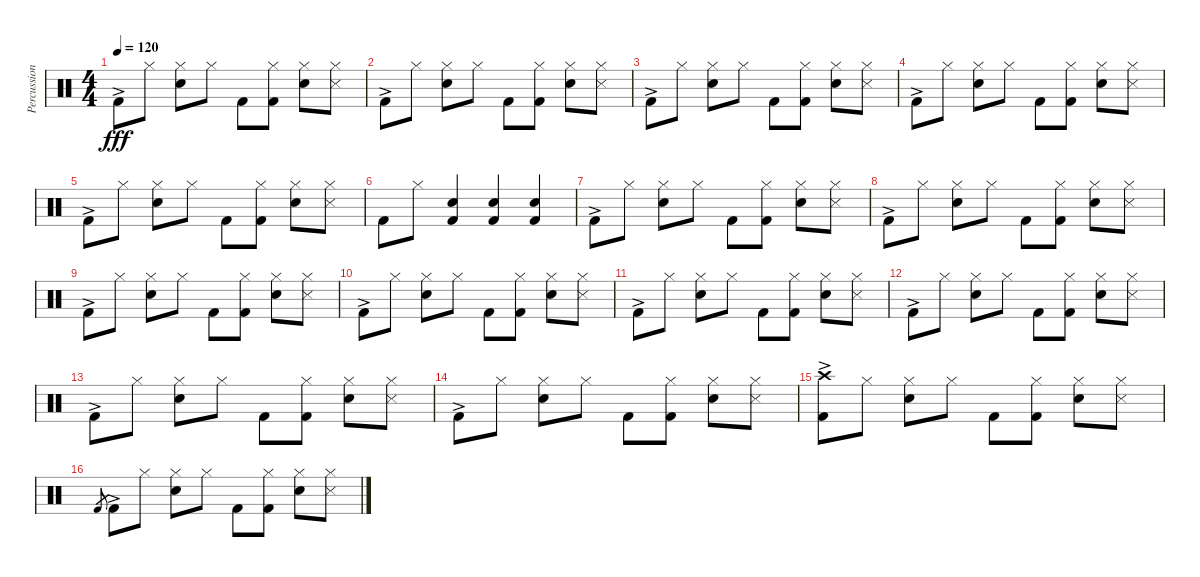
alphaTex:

\track ("Percussion" "Percussion") {instrument percussion}
\staff {score}
\articulation defaults
\ts (4 4)
\tempo 120
\clef neutral
\ks c "Kick (hit) 2"{ac}.8{dy fff} "Hi-Hat (closed)".8
("Hi-Hat (closed)" "Snare (hit) 2").8 "Hi-Hat (closed)".8 "Kick (hit) 2".8 ("Hi-Hat (closed)" "Kick (hit) 2").8 ("Hi-Hat (closed)" "Snare (hit) 2").8 ("Hi-Hat (closed)" "Snare (side stick) 3").8 |
"Kick (hit) 2"{ac}.8 "Hi-Hat (closed)".8 ("Hi-Hat (closed)" "Snare (hit) 2").8 "Hi-Hat (closed)".8 "Kick (hit) 2".8 ("Hi-Hat (closed)" "Kick (hit) 2").8 ("Hi-Hat (closed)" "Snare (hit) 2").8 ("Hi-Hat (closed)" "Snare (side stick) 3").8 |
"Kick (hit) 2"{ac}.8 "Hi-Hat (closed)".8 ("Hi-Hat (closed)" "Snare (hit) 2").8 "Hi-Hat (closed)".8 "Kick (hit) 2".8 ("Hi-Hat (closed)" "Kick (hit) 2").8 ("Hi-Hat (closed)" "Snare (hit) 2").8 ("Hi-Hat (closed)" "Snare (side stick) 3").8 |
"Kick (hit) 2"{ac}.8 "Hi-Hat (closed)".8 ("Hi-Hat (closed)" "Snare (hit) 2").8 "Hi-Hat (closed)".8 "Kick (hit) 2".8 ("Hi-Hat (closed)" "Kick (hit) 2").8 ("Hi-Hat (closed)" "Snare (hit) 2").8 ("Hi-Hat (closed)" "Snare (side stick) 3").8 |
"Kick (hit) 2"{ac}.8 "Hi-Hat (closed)".8 ("Hi-Hat (closed)" "Snare (hit) 2").8 "Hi-Hat (closed)".8 "Kick (hit) 2".8 ("Hi-Hat (closed)" "Kick (hit) 2").8 ("Hi-Hat (closed)" "Snare (hit) 2").8 ("Hi-Hat (closed)" "Snare (side stick) 3").8 |
"Kick (hit) 2".8 "Hi-Hat (closed)".8 ("Snare (hit) 2" "Kick (hit) 2").4 ("Snare (hit) 2" "Kick (hit) 2").4 ("Snare (hit) 2" "Kick (hit) 2").4 |
"Kick (hit) 2"{ac}.8 "Hi-Hat (closed)".8 ("Hi-Hat (closed)" "Snare (hit) 2").8 "Hi-Hat (closed)".8 "Kick (hit) 2".8 ("Hi-Hat (closed)" "Kick (hit) 2").8 ("Hi-Hat (closed)" "Snare (hit) 2").8 ("Hi-Hat (closed)" "Snare (side stick) 3").8 |
"Kick (hit) 2"{ac}.8 "Hi-Hat (closed)".8 ("Hi-Hat (closed)" "Snare (hit) 2").8 "Hi-Hat (closed)".8 "Kick (hit) 2".8 ("Hi-Hat (closed)" "Kick (hit) 2").8 ("Hi-Hat (closed)" "Snare (hit) 2").8 ("Hi-Hat (closed)" "Snare (side stick) 3").8 |
"Kick (hit) 2"{ac}.8 "Hi-Hat (closed)".8 ("Hi-Hat (closed)" "Snare (hit) 2").8 "Hi-Hat (closed)".8 "Kick (hit) 2".8 ("Hi-Hat (closed)" "Kick (hit) 2").8 ("Hi-Hat (closed)" "Snare (hit) 2").8 ("Hi-Hat (closed)" "Snare (side stick) 3").8 |
"Kick (hit) 2"{ac}.8 "Hi-Hat (closed)".8 ("Hi-Hat (closed)" "Snare (hit) 2").8 "Hi-Hat (closed)".8 "Kick (hit) 2".8 ("Hi-Hat (closed)" "Kick (hit) 2").8 ("Hi-Hat (closed)" "Snare (hit) 2").8 ("Hi-Hat (closed)" "Snare (side stick) 3").8 |
"Kick (hit) 2"{ac}.8 "Hi-Hat (closed)".8 ("Hi-Hat (closed)" "Snare (hit) 2").8 "Hi-Hat (closed)".8 "Kick (hit) 2".8 ("Hi-Hat (closed)" "Kick (hit) 2").8 ("Hi-Hat (closed)" "Snare (hit) 2").8 ("Hi-Hat (closed)" "Snare (side stick) 3").8 |
"Kick (hit) 2"{ac}.8 "Hi-Hat (closed)".8 ("Hi-Hat (closed)" "Snare (hit) 2").8 "Hi-Hat (closed)".8 "Kick (hit) 2".8 ("Hi-Hat (closed)" "Kick (hit) 2").8 ("Hi-Hat (closed)" "Snare (hit) 2").8 ("Hi-Hat (closed)" "Snare (side stick) 3").8 |
"Kick (hit) 2"{ac}.8 "Hi-Hat (closed)".8 ("Hi-Hat (closed)" "Snare (hit) 2").8 "Hi-Hat (closed)".8 "Kick (hit) 2".8 ("Hi-Hat (closed)" "Kick (hit) 2").8 ("Hi-Hat (closed)" "Snare (hit) 2").8 ("Hi-Hat (closed)" "Snare (side stick) 3").8 |
"Kick (hit) 2"{ac}.8 "Hi-Hat (closed)".8 ("Hi-Hat (closed)" "Snare (hit) 2").8 "Hi-Hat (closed)".8 "Kick (hit) 2".8 ("Hi-Hat (closed)" "Kick (hit) 2").8 ("Hi-Hat (closed)" "Snare (hit) 2").8 ("Hi-Hat (closed)" "Snare (side stick) 3").8 |
("Crash high (hit)" "Kick (hit) 2"{ac}).8 "Hi-Hat (closed)".8 ("Hi-Hat (closed)" "Snare (hit) 2").8 "Hi-Hat (closed)".8 "Kick (hit) 2".8 ("Hi-Hat (closed)" "Kick (hit) 2").8 ("Hi-Hat (closed)" "Snare (hit) 2").8 ("Hi-Hat (closed)" "Snare (side stick) 3").8 |
"Kick (hit) 2".8{gr} "Kick (hit) 2"{ac}.8 "Hi-Hat (closed)".8 ("Hi-Hat (closed)" "Snare (hit) 2").8 "Hi-Hat (closed)".8 "Kick (hit) 2".8 ("Hi-Hat (closed)" "Kick (hit) 2").8 ("Hi-Hat (closed)" "Snare (hit) 2").8 ("Hi-Hat (closed)" "Snare (side stick) 3").8
